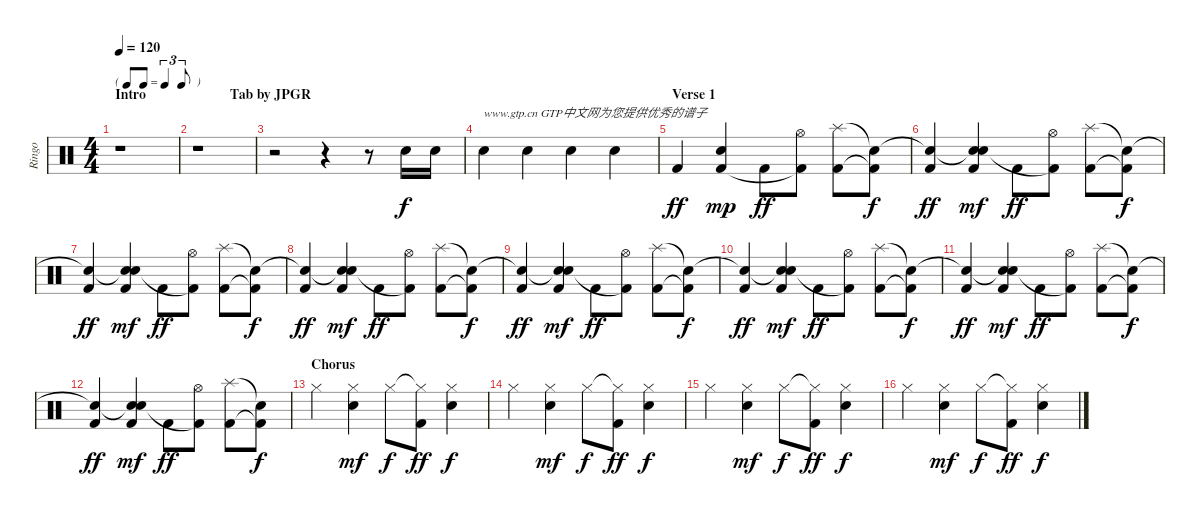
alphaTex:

\track ("Ringo" "Ringo") {instrument percussion}
\staff {score}
\articulation defaults
\ts (4 4)
\tf triplet8th
\section ("" "Intro                        Tab by JPGR")
\tempo 120
\clef neutral
\ks c
r.1{dy f} |
r.1 |
r.2 r.4 r.8 "Snare (hit) 2".16 "Snare (hit) 2".16 |
"Snare (hit) 2".4{txt "www.gtp.cn GTP中文网为您提供优秀的谱子"} "Snare (hit) 2".4 "Snare (hit) 2".4 "Snare (hit) 2".4 |
\section ("" "Verse 1")
"Kick (hit) 2".4{dy ff} ("Snare (hit) 2" "Kick (hit) 2").4{dy mp} "Kick (hit) 2".8{dy ff} ("Hi-Hat (open)" "Kick (hit) 2"{t}).8 ("Splash (hit)" "Kick (hit) 2").8 ("Snare (hit)"{t} "Kick (hit) 2"{t}).8{dy f} |
("Snare (hit)"{t} "Kick (hit) 2").4{dy ff} ("Snare (hit)"{t} "Snare (hit) 2" "Kick (hit) 2").4{dy mf} "Kick (hit) 2".8{dy ff} ("Hi-Hat (open)" "Kick (hit) 2"{t}).8 ("Splash (hit)" "Kick (hit) 2").8 ("Snare (hit)"{t} "Kick (hit) 2"{t}).8{dy f} |
("Snare (hit)"{t} "Kick (hit) 2").4{dy ff} ("Snare (hit)"{t} "Snare (hit) 2" "Kick (hit) 2").4{dy mf} "Kick (hit) 2".8{dy ff} ("Hi-Hat (open)" "Kick (hit) 2"{t}).8 ("Splash (hit)" "Kick (hit) 2").8 ("Snare (hit)"{t} "Kick (hit) 2"{t}).8{dy f} |
("Snare (hit)"{t} "Kick (hit) 2").4{dy ff} ("Snare (hit)"{t} "Snare (hit) 2" "Kick (hit) 2").4{dy mf} "Kick (hit) 2".8{dy ff} ("Hi-Hat (open)" "Kick (hit) 2"{t}).8 ("Splash (hit)" "Kick (hit) 2").8 ("Snare (hit)"{t} "Kick (hit) 2"{t}).8{dy f} |
("Snare (hit)"{t} "Kick (hit) 2").4{dy ff} ("Snare (hit)"{t} "Snare (hit) 2" "Kick (hit) 2").4{dy mf} "Kick (hit) 2".8{dy ff} ("Hi-Hat (open)" "Kick (hit) 2"{t}).8 ("Splash (hit)" "Kick (hit) 2").8 ("Snare (hit)"{t} "Kick (hit) 2"{t}).8{dy f} |
("Snare (hit)"{t} "Kick (hit) 2").4{dy ff} ("Snare (hit)"{t} "Snare (hit) 2" "Kick (hit) 2").4{dy mf} "Kick (hit) 2".8{dy ff} ("Hi-Hat (open)" "Kick (hit) 2"{t}).8 ("Splash (hit)" "Kick (hit) 2").8 ("Snare (hit)"{t} "Kick (hit) 2"{t}).8{dy f} |
("Snare (hit)"{t} "Kick (hit) 2").4{dy ff} ("Snare (hit)"{t} "Snare (hit) 2" "Kick (hit) 2").4{dy mf} "Kick (hit) 2".8{dy ff} ("Hi-Hat (open)" "Kick (hit) 2"{t}).8 ("Splash (hit)" "Kick (hit) 2").8 ("Snare (hit)"{t} "Kick (hit) 2"{t}).8{dy f} |
("Snare (hit)"{t} "Kick (hit) 2").4{dy ff} ("Snare (hit)"{t} "Snare (hit) 2" "Kick (hit) 2").4{dy mf} "Kick (hit) 2".8{dy ff} ("Hi-Hat (open)" "Kick (hit) 2"{t}).8 ("Splash (hit)" "Kick (hit) 2").8 ("Snare (hit)"{t} "Kick (hit) 2"{t}).8{dy f} |
\section ("" "Chorus")
"Hi-Hat (closed)".4 ("Hi-Hat (closed)" "Snare (hit) 2").4{dy mf} "Hi-Hat (closed)".8{dy f} ("Hi-Hat (closed)"{t} "Kick (hit) 2").8{dy ff} ("Hi-Hat (closed)" "Snare (hit) 2").4{dy f} |
"Hi-Hat (closed)".4 ("Hi-Hat (closed)" "Snare (hit) 2").4{dy mf} "Hi-Hat (closed)".8{dy f} ("Hi-Hat (closed)"{t} "Kick (hit) 2").8{dy ff} ("Hi-Hat (closed)" "Snare (hit) 2").4{dy f} |
"Hi-Hat (closed)".4 ("Hi-Hat (closed)" "Snare (hit) 2").4{dy mf} "Hi-Hat (closed)".8{dy f} ("Hi-Hat (closed)"{t} "Kick (hit) 2").8{dy ff} ("Hi-Hat (closed)" "Snare (hit) 2").4{dy f} |
"Hi-Hat (closed)".4 ("Hi-Hat (closed)" "Snare (hit) 2").4{dy mf} "Hi-Hat (closed)".8{dy f} ("Hi-Hat (closed)"{t} "Kick (hit) 2").8{dy ff} ("Hi-Hat (closed)" "Snare (hit) 2").4{dy f}
